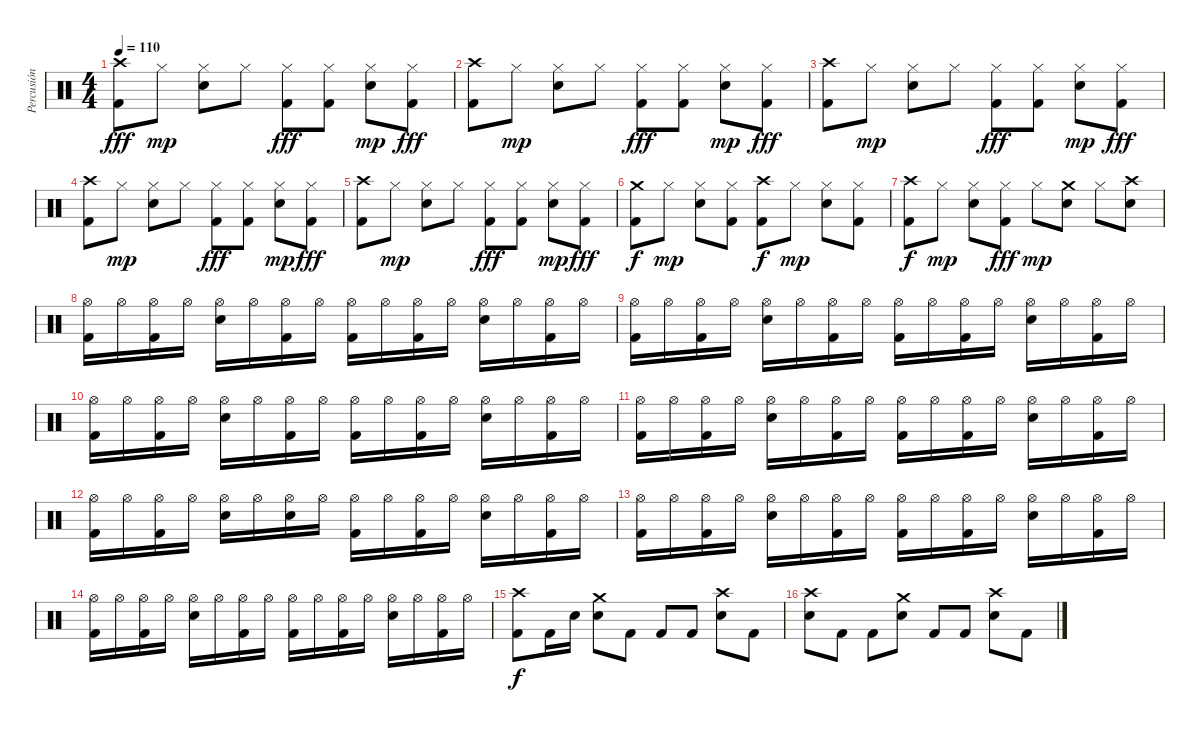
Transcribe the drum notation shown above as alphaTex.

\track ("Percusión" "Percusión") {instrument percussion}
\staff {score}
\articulation defaults
\ts (4 4)
\tempo 110
\clef neutral
\ks c
("Crash high (hit)" "Kick (hit) 2").8{dy fff} "Hi-Hat (closed)".8{dy mp} ("Hi-Hat (closed)" "Snare (hit) 2").8 "Hi-Hat (closed)".8 ("Hi-Hat (closed)" "Kick (hit) 2").8{dy fff} ("Hi-Hat (closed)" "Kick (hit) 2").8 ("Hi-Hat (closed)" "Snare (hit) 2").8{dy mp} ("Hi-Hat (closed)" "Kick (hit) 2").8{dy fff} |
("Crash high (hit)" "Kick (hit) 2").8 "Hi-Hat (closed)".8{dy mp} ("Hi-Hat (closed)" "Snare (hit) 2").8 "Hi-Hat (closed)".8 ("Hi-Hat (closed)" "Kick (hit) 2").8{dy fff} ("Hi-Hat (closed)" "Kick (hit) 2").8 ("Hi-Hat (closed)" "Snare (hit) 2").8{dy mp} ("Hi-Hat (closed)" "Kick (hit) 2").8{dy fff} |
("Crash high (hit)" "Kick (hit) 2").8 "Hi-Hat (closed)".8{dy mp} ("Hi-Hat (closed)" "Snare (hit) 2").8 "Hi-Hat (closed)".8 ("Hi-Hat (closed)" "Kick (hit) 2").8{dy fff} ("Hi-Hat (closed)" "Kick (hit) 2").8 ("Hi-Hat (closed)" "Snare (hit) 2").8{dy mp} ("Hi-Hat (closed)" "Kick (hit) 2").8{dy fff} |
("Crash high (hit)" "Kick (hit) 2").8 "Hi-Hat (closed)".8{dy mp} ("Hi-Hat (closed)" "Snare (hit) 2").8 "Hi-Hat (closed)".8 ("Hi-Hat (closed)" "Kick (hit) 2").8{dy fff} ("Hi-Hat (closed)" "Kick (hit) 2").8 ("Hi-Hat (closed)" "Snare (hit) 2").8{dy mp} ("Hi-Hat (closed)" "Kick (hit) 2").8{dy fff} |
("Crash high (hit)" "Kick (hit) 2").8 "Hi-Hat (closed)".8{dy mp} ("Hi-Hat (closed)" "Snare (hit) 2").8 "Hi-Hat (closed)".8 ("Hi-Hat (closed)" "Kick (hit) 2").8{dy fff} ("Hi-Hat (closed)" "Kick (hit) 2").8 ("Hi-Hat (closed)" "Snare (hit) 2").8{dy mp} ("Hi-Hat (closed)" "Kick (hit) 2").8{dy fff} |
("Crash medium (hit)" "Kick (hit) 2").8{dy f} "Hi-Hat (closed)".8{dy mp} ("Hi-Hat (closed)" "Snare (hit) 2").8 ("Hi-Hat (closed)" "Kick (hit) 2").8 ("Crash high (hit)" "Kick (hit) 2").8{dy f} "Hi-Hat (closed)".8{dy mp} ("Hi-Hat (closed)" "Snare (hit) 2").8 ("Hi-Hat (closed)" "Kick (hit) 2").8 |
("Crash high (hit)" "Kick (hit) 2").8{dy f} "Hi-Hat (closed)".8{dy mp} ("Hi-Hat (closed)" "Snare (hit) 2").8 ("Hi-Hat (closed)" "Kick (hit) 2").8{dy fff} "Hi-Hat (closed)".8{dy mp} ("Crash medium (hit)" "Snare (hit) 2").8 "Hi-Hat (closed)".8 ("Crash high (hit)" "Snare (hit) 2").8 |
("Hi-Hat (open)" "Kick (hit) 2").16 "Hi-Hat (open)".16 ("Hi-Hat (open)" "Kick (hit) 2").16 "Hi-Hat (open)".16 ("Hi-Hat (open)" "Snare (hit) 2").16 "Hi-Hat (open)".16 ("Hi-Hat (open)" "Kick (hit) 2").16 "Hi-Hat (open)".16 ("Hi-Hat (open)" "Kick (hit) 2").16 "Hi-Hat (open)".16 ("Hi-Hat (open)" "Kick (hit) 2").16 "Hi-Hat (open)".16 ("Hi-Hat (open)" "Snare (hit) 2").16 "Hi-Hat (open)".16 ("Hi-Hat (open)" "Kick (hit) 2").16 "Hi-Hat (open)".16 |
("Hi-Hat (open)" "Kick (hit) 2").16 "Hi-Hat (open)".16 ("Hi-Hat (open)" "Kick (hit) 2").16 "Hi-Hat (open)".16 ("Hi-Hat (open)" "Snare (hit) 2").16 "Hi-Hat (open)".16 ("Hi-Hat (open)" "Kick (hit) 2").16 "Hi-Hat (open)".16 ("Hi-Hat (open)" "Kick (hit) 2").16 "Hi-Hat (open)".16 ("Hi-Hat (open)" "Kick (hit) 2").16 "Hi-Hat (open)".16 ("Hi-Hat (open)" "Snare (hit) 2").16 "Hi-Hat (open)".16 ("Hi-Hat (open)" "Kick (hit) 2").16 "Hi-Hat (open)".16 |
("Hi-Hat (open)" "Kick (hit) 2").16 "Hi-Hat (open)".16 ("Hi-Hat (open)" "Kick (hit) 2").16 "Hi-Hat (open)".16 ("Hi-Hat (open)" "Snare (hit) 2").16 "Hi-Hat (open)".16 ("Hi-Hat (open)" "Kick (hit) 2").16 "Hi-Hat (open)".16 ("Hi-Hat (open)" "Kick (hit) 2").16 "Hi-Hat (open)".16 ("Hi-Hat (open)" "Kick (hit) 2").16 "Hi-Hat (open)".16 ("Hi-Hat (open)" "Snare (hit) 2").16 "Hi-Hat (open)".16 ("Hi-Hat (open)" "Kick (hit) 2").16 "Hi-Hat (open)".16 |
("Hi-Hat (open)" "Kick (hit) 2").16 "Hi-Hat (open)".16 ("Hi-Hat (open)" "Kick (hit) 2").16 "Hi-Hat (open)".16 ("Hi-Hat (open)" "Snare (hit) 2").16 "Hi-Hat (open)".16 ("Hi-Hat (open)" "Kick (hit) 2").16 "Hi-Hat (open)".16 ("Hi-Hat (open)" "Kick (hit) 2").16 "Hi-Hat (open)".16 ("Hi-Hat (open)" "Kick (hit) 2").16 "Hi-Hat (open)".16 ("Hi-Hat (open)" "Snare (hit) 2").16 "Hi-Hat (open)".16 ("Hi-Hat (open)" "Kick (hit) 2").16 "Hi-Hat (open)".16 |
("Hi-Hat (open)" "Kick (hit) 2").16 "Hi-Hat (open)".16 ("Hi-Hat (open)" "Kick (hit) 2").16 "Hi-Hat (open)".16 ("Hi-Hat (open)" "Snare (hit) 2").16 "Hi-Hat (open)".16 ("Hi-Hat (open)" "Snare (hit) 2").16 "Hi-Hat (open)".16 ("Hi-Hat (open)" "Kick (hit) 2").16 "Hi-Hat (open)".16 ("Hi-Hat (open)" "Kick (hit) 2").16 "Hi-Hat (open)".16 ("Hi-Hat (open)" "Snare (hit) 2").16 "Hi-Hat (open)".16 ("Hi-Hat (open)" "Kick (hit) 2").16 "Hi-Hat (open)".16 |
("Hi-Hat (open)" "Kick (hit) 2").16 "Hi-Hat (open)".16 ("Hi-Hat (open)" "Kick (hit) 2").16 "Hi-Hat (open)".16 ("Hi-Hat (open)" "Snare (hit) 2").16 "Hi-Hat (open)".16 ("Hi-Hat (open)" "Kick (hit) 2").16 "Hi-Hat (open)".16 ("Hi-Hat (open)" "Kick (hit) 2").16 "Hi-Hat (open)".16 ("Hi-Hat (open)" "Kick (hit) 2").16 "Hi-Hat (open)".16 ("Hi-Hat (open)" "Snare (hit) 2").16 "Hi-Hat (open)".16 ("Hi-Hat (open)" "Kick (hit) 2").16 "Hi-Hat (open)".16 |
("Hi-Hat (open)" "Kick (hit) 2").16 "Hi-Hat (open)".16 ("Hi-Hat (open)" "Kick (hit) 2").16 "Hi-Hat (open)".16 ("Hi-Hat (open)" "Snare (hit) 2").16 "Hi-Hat (open)".16 ("Hi-Hat (open)" "Kick (hit) 2").16 "Hi-Hat (open)".16 ("Hi-Hat (open)" "Kick (hit) 2").16 "Hi-Hat (open)".16 ("Hi-Hat (open)" "Kick (hit) 2").16 "Hi-Hat (open)".16 ("Hi-Hat (open)" "Snare (hit) 2").16 "Hi-Hat (open)".16 ("Hi-Hat (open)" "Kick (hit) 2").16 "Hi-Hat (open)".16 |
("Crash high (hit)" "Kick (hit) 2").8{dy f} "Kick (hit) 2".16 "Snare (hit) 2".16 ("Crash medium (hit)" "Snare (hit) 2").8 "Kick (hit) 2".8 "Kick (hit) 2".8 "Kick (hit) 2".8 ("Crash high (hit)" "Snare (hit) 2").8 "Kick (hit) 2".8 |
("Crash high (hit)" "Snare (hit) 2").8 "Kick (hit) 2".8 "Kick (hit) 2".8 ("Crash medium (hit)" "Snare (hit) 2").8 "Kick (hit) 2".8 "Kick (hit) 2".8 ("Crash high (hit)" "Snare (hit) 2").8 "Kick (hit) 2".8
